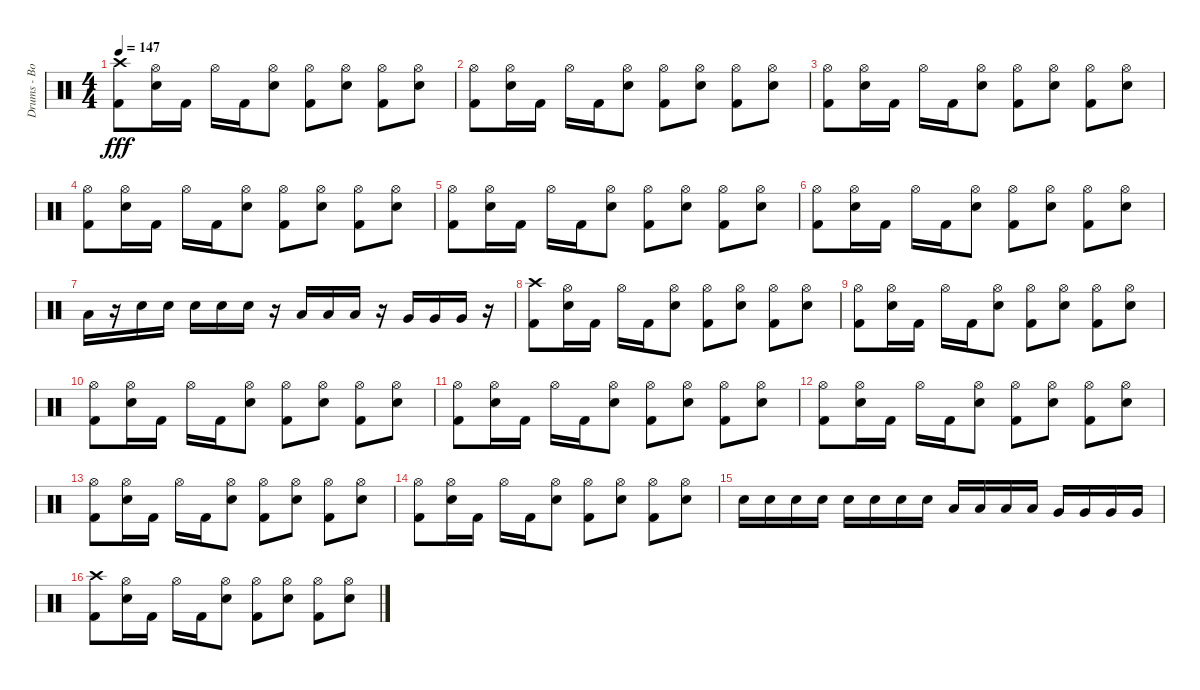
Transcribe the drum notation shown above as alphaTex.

\track ("Drums - Bobby Schayer" "Drums - Bo") {instrument percussion}
\staff {score}
\articulation defaults
\ts (4 4)
\tempo 147
\clef neutral
\ks c
("Crash high (hit)" "Kick (hit) 2").8{dy fff} ("Electric Snare (hit)" "Hi-Hat (open)").16 "Kick (hit) 2".16 "Hi-Hat (open)".16 "Kick (hit) 2".16 ("Electric Snare (hit)" "Hi-Hat (open)").8 ("Kick (hit) 2" "Hi-Hat (open)").8 ("Electric Snare (hit)" "Hi-Hat (open)").8 ("Kick (hit) 2" "Hi-Hat (open)").8 ("Electric Snare (hit)" "Hi-Hat (open)").8 |
("Kick (hit) 2" "Hi-Hat (open)").8 ("Electric Snare (hit)" "Hi-Hat (open)").16 "Kick (hit) 2".16 "Hi-Hat (open)".16 "Kick (hit) 2".16 ("Electric Snare (hit)" "Hi-Hat (open)").8 ("Kick (hit) 2" "Hi-Hat (open)").8 ("Electric Snare (hit)" "Hi-Hat (open)").8 ("Kick (hit) 2" "Hi-Hat (open)").8 ("Electric Snare (hit)" "Hi-Hat (open)").8 |
("Hi-Hat (open)" "Kick (hit) 2").8 ("Electric Snare (hit)" "Hi-Hat (open)").16 "Kick (hit) 2".16 "Hi-Hat (open)".16 "Kick (hit) 2".16 ("Electric Snare (hit)" "Hi-Hat (open)").8 ("Kick (hit) 2" "Hi-Hat (open)").8 ("Electric Snare (hit)" "Hi-Hat (open)").8 ("Kick (hit) 2" "Hi-Hat (open)").8 ("Electric Snare (hit)" "Hi-Hat (open)").8 |
("Hi-Hat (open)" "Kick (hit) 2").8 ("Electric Snare (hit)" "Hi-Hat (open)").16 "Kick (hit) 2".16 "Hi-Hat (open)".16 "Kick (hit) 2".16 ("Electric Snare (hit)" "Hi-Hat (open)").8 ("Kick (hit) 2" "Hi-Hat (open)").8 ("Electric Snare (hit)" "Hi-Hat (open)").8 ("Kick (hit) 2" "Hi-Hat (open)").8 ("Electric Snare (hit)" "Hi-Hat (open)").8 |
("Kick (hit) 2" "Hi-Hat (open)").8 ("Electric Snare (hit)" "Hi-Hat (open)").16 "Kick (hit) 2".16 "Hi-Hat (open)".16 "Kick (hit) 2".16 ("Electric Snare (hit)" "Hi-Hat (open)").8 ("Kick (hit) 2" "Hi-Hat (open)").8 ("Electric Snare (hit)" "Hi-Hat (open)").8 ("Kick (hit) 2" "Hi-Hat (open)").8 ("Electric Snare (hit)" "Hi-Hat (open)").8 |
("Kick (hit) 2" "Hi-Hat (open)").8 ("Electric Snare (hit)" "Hi-Hat (open)").16 "Kick (hit) 2".16 "Hi-Hat (open)".16 "Kick (hit) 2".16 ("Electric Snare (hit)" "Hi-Hat (open)").8 ("Kick (hit) 2" "Hi-Hat (open)").8 ("Electric Snare (hit)" "Hi-Hat (open)").8 ("Kick (hit) 2" "Hi-Hat (open)").8 ("Electric Snare (hit)" "Hi-Hat (open)").8 |
"Low Tom (hit)".16 r.16 "Electric Snare (hit)".16 "Electric Snare (hit)".16 "Electric Snare (hit)".16 "Electric Snare (hit)".16 "Electric Snare (hit)".16 r.16 "Low Tom (hit)".16 "Low Tom (hit)".16 "Low Tom (hit)".16 r.16 "Very Low Tom (hit)".16 "Very Low Tom (hit)".16 "Very Low Tom (hit)".16 r.16 |
("Kick (hit) 2" "Crash high (hit)").8 ("Electric Snare (hit)" "Hi-Hat (open)").16 "Kick (hit) 2".16 "Hi-Hat (open)".16 "Kick (hit) 2".16 ("Electric Snare (hit)" "Hi-Hat (open)").8 ("Hi-Hat (open)" "Kick (hit) 2").8 ("Hi-Hat (open)" "Electric Snare (hit)").8 ("Hi-Hat (open)" "Kick (hit) 2").8 ("Hi-Hat (open)" "Electric Snare (hit)").8 |
("Hi-Hat (open)" "Kick (hit) 2").8 ("Electric Snare (hit)" "Hi-Hat (open)").16 "Kick (hit) 2".16 "Hi-Hat (open)".16 "Kick (hit) 2".16 ("Electric Snare (hit)" "Hi-Hat (open)").8 ("Hi-Hat (open)" "Kick (hit) 2").8 ("Hi-Hat (open)" "Electric Snare (hit)").8 ("Hi-Hat (open)" "Kick (hit) 2").8 ("Hi-Hat (open)" "Electric Snare (hit)").8 |
("Hi-Hat (open)" "Kick (hit) 2").8 ("Electric Snare (hit)" "Hi-Hat (open)").16 "Kick (hit) 2".16 "Hi-Hat (open)".16 "Kick (hit) 2".16 ("Electric Snare (hit)" "Hi-Hat (open)").8 ("Hi-Hat (open)" "Kick (hit) 2").8 ("Hi-Hat (open)" "Electric Snare (hit)").8 ("Hi-Hat (open)" "Kick (hit) 2").8 ("Hi-Hat (open)" "Electric Snare (hit)").8 |
("Hi-Hat (open)" "Kick (hit) 2").8 ("Electric Snare (hit)" "Hi-Hat (open)").16 "Kick (hit) 2".16 "Hi-Hat (open)".16 "Kick (hit) 2".16 ("Electric Snare (hit)" "Hi-Hat (open)").8 ("Hi-Hat (open)" "Kick (hit) 2").8 ("Hi-Hat (open)" "Electric Snare (hit)").8 ("Kick (hit) 2" "Hi-Hat (open)").8 ("Electric Snare (hit)" "Hi-Hat (open)").8 |
("Kick (hit) 2" "Hi-Hat (open)").8 ("Electric Snare (hit)" "Hi-Hat (open)").16 "Kick (hit) 2".16 "Hi-Hat (open)".16 "Kick (hit) 2".16 ("Electric Snare (hit)" "Hi-Hat (open)").8 ("Hi-Hat (open)" "Kick (hit) 2").8 ("Hi-Hat (open)" "Electric Snare (hit)").8 ("Hi-Hat (open)" "Kick (hit) 2").8 ("Hi-Hat (open)" "Electric Snare (hit)").8 |
("Hi-Hat (open)" "Kick (hit) 2").8 ("Electric Snare (hit)" "Hi-Hat (open)").16 "Kick (hit) 2".16 "Hi-Hat (open)".16 "Kick (hit) 2".16 ("Electric Snare (hit)" "Hi-Hat (open)").8 ("Hi-Hat (open)" "Kick (hit) 2").8 ("Hi-Hat (open)" "Electric Snare (hit)").8 ("Hi-Hat (open)" "Kick (hit) 2").8 ("Hi-Hat (open)" "Electric Snare (hit)").8 |
("Kick (hit) 2" "Hi-Hat (open)").8 ("Electric Snare (hit)" "Hi-Hat (open)").16 "Kick (hit) 2".16 "Hi-Hat (open)".16 "Kick (hit) 2".16 ("Electric Snare (hit)" "Hi-Hat (open)").8 ("Kick (hit) 2" "Hi-Hat (open)").8 ("Electric Snare (hit)" "Hi-Hat (open)").8 ("Kick (hit) 2" "Hi-Hat (open)").8 ("Electric Snare (hit)" "Hi-Hat (open)").8 |
"Electric Snare (hit)".16 "Electric Snare (hit)".16 "Electric Snare (hit)".16 "Electric Snare (hit)".16 "Electric Snare (hit)".16 "Electric Snare (hit)".16 "Electric Snare (hit)".16 "Electric Snare (hit)".16 "Low Tom (hit)".16 "Low Tom (hit)".16 "Low Tom (hit)".16 "Low Tom (hit)".16 "Very Low Tom (hit)".16 "Very Low Tom (hit)".16 "Very Low Tom (hit)".16 "Very Low Tom (hit)".16 |
("Crash high (hit)" "Kick (hit) 2").8 ("Electric Snare (hit)" "Hi-Hat (open)").16 "Kick (hit) 2".16 "Hi-Hat (open)".16 "Kick (hit) 2".16 ("Electric Snare (hit)" "Hi-Hat (open)").8 ("Kick (hit) 2" "Hi-Hat (open)").8 ("Electric Snare (hit)" "Hi-Hat (open)").8 ("Kick (hit) 2" "Hi-Hat (open)").8 ("Electric Snare (hit)" "Hi-Hat (open)").8
